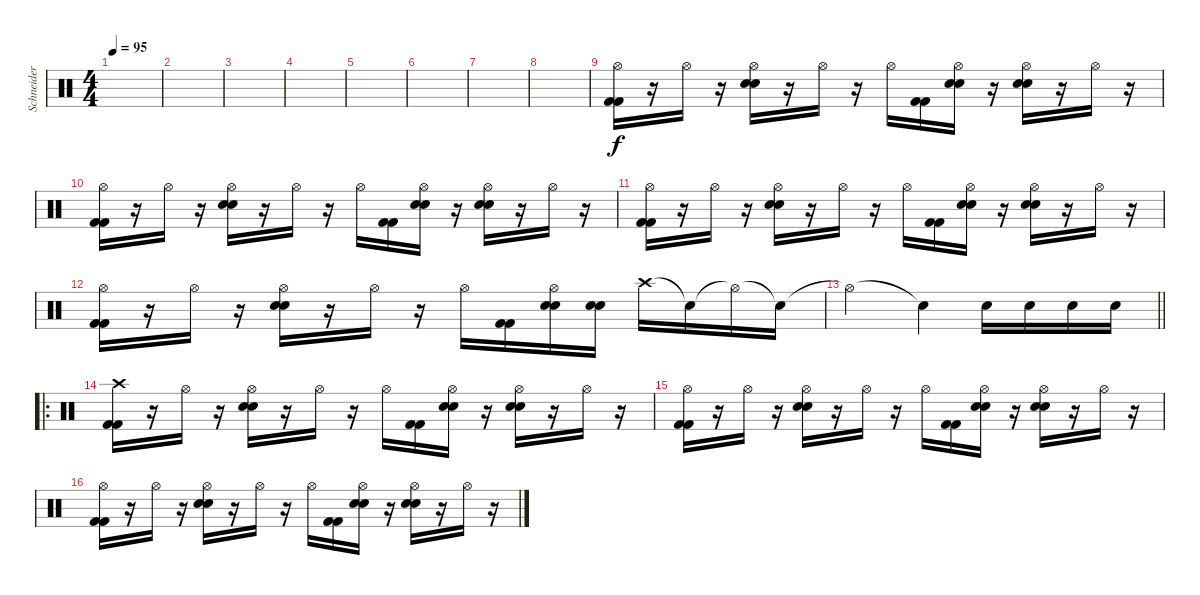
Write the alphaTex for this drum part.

\track ("Schneider" "Schneider") {instrument percussion}
\staff {score}
\articulation defaults
\ts (4 4)
\tempo 95
\clef neutral
\ks c
|
|
|
|
|
|
|
|
("Hi-Hat (open)" "Kick (hit) 2" "Kick (hit) 2").16 r.16 "Hi-Hat (open)".16 r.16 ("Hi-Hat (open)" "Electric Snare (hit)" "Electric Snare (hit)").16 r.16 "Hi-Hat (open)".16 r.16 "Hi-Hat (open)".16 ("Kick (hit) 2" "Kick (hit) 2").16 ("Hi-Hat (open)" "Electric Snare (hit)" "Electric Snare (hit)").16 r.16 ("Hi-Hat (open)" "Electric Snare (hit)" "Electric Snare (hit)").16 r.16 "Hi-Hat (open)".16 r.16 |
("Hi-Hat (open)" "Kick (hit) 2" "Kick (hit) 2").16 r.16 "Hi-Hat (open)".16 r.16 ("Hi-Hat (open)" "Electric Snare (hit)" "Electric Snare (hit)").16 r.16 "Hi-Hat (open)".16 r.16 "Hi-Hat (open)".16 ("Kick (hit) 2" "Kick (hit) 2").16 ("Hi-Hat (open)" "Electric Snare (hit)" "Electric Snare (hit)").16 r.16 ("Hi-Hat (open)" "Electric Snare (hit)" "Electric Snare (hit)").16 r.16 "Hi-Hat (open)".16 r.16 |
("Hi-Hat (open)" "Kick (hit) 2" "Kick (hit) 2").16 r.16 "Hi-Hat (open)".16 r.16 ("Hi-Hat (open)" "Electric Snare (hit)" "Electric Snare (hit)").16 r.16 "Hi-Hat (open)".16 r.16 "Hi-Hat (open)".16 ("Kick (hit) 2" "Kick (hit) 2").16 ("Hi-Hat (open)" "Electric Snare (hit)" "Electric Snare (hit)").16 r.16 ("Hi-Hat (open)" "Electric Snare (hit)" "Electric Snare (hit)").16 r.16 "Hi-Hat (open)".16 r.16 |
("Hi-Hat (open)" "Kick (hit) 2" "Kick (hit) 2").16 r.16 "Hi-Hat (open)".16 r.16 ("Hi-Hat (open)" "Electric Snare (hit)" "Electric Snare (hit)").16 r.16 "Hi-Hat (open)".16 r.16 "Hi-Hat (open)".16 ("Kick (hit) 2" "Kick (hit) 2").16 ("Hi-Hat (open)" "Electric Snare (hit)" "Electric Snare (hit)").16 ("Electric Snare (hit)" "Electric Snare (hit)").16 "Crash high (hit)".16 "Snare (hit)"{t}.16 "Hi-Hat (open)"{t}.16 "Snare (hit)"{t}.16 |
\barLineRight lightlight "Hi-Hat (open)"{t}.2 "Snare (hit)"{t}.4 "Electric Snare (hit)".16 "Electric Snare (hit)".16 "Electric Snare (hit)".16 "Electric Snare (hit)".16
|
\ro
("Crash high (hit)" "Kick (hit) 2" "Kick (hit) 2").16 r.16 "Hi-Hat (open)".16 r.16 ("Hi-Hat (open)" "Electric Snare (hit)" "Electric Snare (hit)").16 r.16 "Hi-Hat (open)".16 r.16 "Hi-Hat (open)".16 ("Kick (hit) 2" "Kick (hit) 2").16 ("Hi-Hat (open)" "Electric Snare (hit)" "Electric Snare (hit)").16 r.16 ("Hi-Hat (open)" "Electric Snare (hit)" "Electric Snare (hit)").16 r.16 "Hi-Hat (open)".16 r.16 |
("Hi-Hat (open)" "Kick (hit) 2" "Kick (hit) 2").16 r.16 "Hi-Hat (open)".16 r.16 ("Hi-Hat (open)" "Electric Snare (hit)" "Electric Snare (hit)").16 r.16 "Hi-Hat (open)".16 r.16 "Hi-Hat (open)".16 ("Kick (hit) 2" "Kick (hit) 2").16 ("Hi-Hat (open)" "Electric Snare (hit)" "Electric Snare (hit)").16 r.16 ("Hi-Hat (open)" "Electric Snare (hit)" "Electric Snare (hit)").16 r.16 "Hi-Hat (open)".16 r.16 |
("Hi-Hat (open)" "Kick (hit) 2" "Kick (hit) 2").16 r.16 "Hi-Hat (open)".16 r.16 ("Hi-Hat (open)" "Electric Snare (hit)" "Electric Snare (hit)").16 r.16 "Hi-Hat (open)".16 r.16 "Hi-Hat (open)".16 ("Kick (hit) 2" "Kick (hit) 2").16 ("Hi-Hat (open)" "Electric Snare (hit)" "Electric Snare (hit)").16 r.16 ("Hi-Hat (open)" "Electric Snare (hit)" "Electric Snare (hit)").16 r.16 "Hi-Hat (open)".16 r.16
